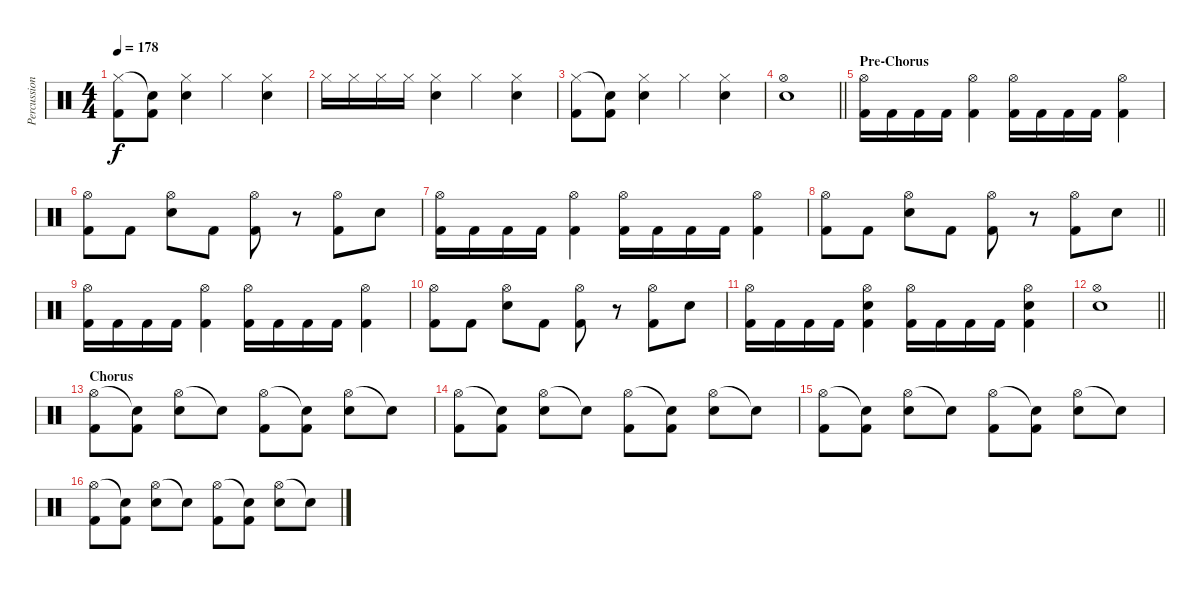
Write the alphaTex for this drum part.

\track ("Percussion" "Percussion") {instrument percussion}
\staff {score}
\articulation defaults
\ts (4 4)
\tempo 178
\clef neutral
\ks c
("Hi-Hat (closed)" "Kick (hit) 2").8{dy f} ("Snare (hit)"{t} "Kick (hit) 2").8 ("Hi-Hat (closed)" "Snare (hit) 2").4 "Hi-Hat (closed)".4 ("Hi-Hat (closed)" "Snare (hit) 2").4 |
"Hi-Hat (closed)".16 "Hi-Hat (closed)".16 "Hi-Hat (closed)".16 "Hi-Hat (closed)".16 ("Hi-Hat (closed)" "Snare (hit) 2").4 "Hi-Hat (closed)".4 ("Hi-Hat (closed)" "Snare (hit) 2").4 |
("Hi-Hat (closed)" "Kick (hit) 2").8 ("Snare (hit)"{t} "Kick (hit) 2").8 ("Hi-Hat (closed)" "Snare (hit) 2").4 "Hi-Hat (closed)".4 ("Hi-Hat (closed)" "Snare (hit) 2").4 |
\barLineRight lightlight
("Hi-Hat (open)" "Snare (hit) 2").1 |
\section ("" "Pre-Chorus")
("Hi-Hat (open)" "Kick (hit) 2").16 "Kick (hit) 2".16 "Kick (hit) 2".16 "Kick (hit) 2".16 ("Hi-Hat (open)" "Kick (hit) 2").4 ("Hi-Hat (open)" "Kick (hit) 2").16 "Kick (hit) 2".16 "Kick (hit) 2".16 "Kick (hit) 2".16 ("Hi-Hat (open)" "Kick (hit) 2").4 |
("Hi-Hat (open)" "Kick (hit) 2").8 "Kick (hit) 2".8 ("Hi-Hat (open)" "Snare (hit) 2").8 "Kick (hit) 2".8 ("Hi-Hat (open)" "Kick (hit) 2").8 r.8 ("Hi-Hat (open)" "Kick (hit) 2").8 "Snare (hit) 2".8 |
("Hi-Hat (open)" "Kick (hit) 2").16 "Kick (hit) 2".16 "Kick (hit) 2".16 "Kick (hit) 2".16 ("Hi-Hat (open)" "Kick (hit) 2").4 ("Hi-Hat (open)" "Kick (hit) 2").16 "Kick (hit) 2".16 "Kick (hit) 2".16 "Kick (hit) 2".16 ("Hi-Hat (open)" "Kick (hit) 2").4 |
\barLineRight lightlight
("Hi-Hat (open)" "Kick (hit) 2").8 "Kick (hit) 2".8 ("Hi-Hat (open)" "Snare (hit) 2").8 "Kick (hit) 2".8 ("Hi-Hat (open)" "Kick (hit) 2").8 r.8 ("Hi-Hat (open)" "Kick (hit) 2").8 "Snare (hit) 2".8 |
("Hi-Hat (open)" "Kick (hit) 2").16 "Kick (hit) 2".16 "Kick (hit) 2".16 "Kick (hit) 2".16 ("Hi-Hat (open)" "Kick (hit) 2").4 ("Hi-Hat (open)" "Kick (hit) 2").16 "Kick (hit) 2".16 "Kick (hit) 2".16 "Kick (hit) 2".16 ("Hi-Hat (open)" "Kick (hit) 2").4 |
("Hi-Hat (open)" "Kick (hit) 2").8 "Kick (hit) 2".8 ("Hi-Hat (open)" "Snare (hit) 2").8 "Kick (hit) 2".8 ("Hi-Hat (open)" "Kick (hit) 2").8 r.8 ("Hi-Hat (open)" "Kick (hit) 2").8 "Snare (hit) 2".8 |
("Hi-Hat (open)" "Kick (hit) 2").16 "Kick (hit) 2".16 "Kick (hit) 2".16 "Kick (hit) 2".16 ("Hi-Hat (open)" "Snare (hit) 2" "Kick (hit) 2").4 ("Hi-Hat (open)" "Kick (hit) 2").16 "Kick (hit) 2".16 "Kick (hit) 2".16 "Kick (hit) 2".16 ("Hi-Hat (open)" "Snare (hit) 2" "Kick (hit) 2").4 |
\barLineRight lightlight
("Hi-Hat (open)" "Snare (hit) 2").1 |
\section ("" "Chorus")
("Hi-Hat (open)" "Kick (hit) 2").8 ("Snare (hit)"{t} "Kick (hit) 2").8 ("Hi-Hat (open)" "Snare (hit) 2").8 "Snare (hit)"{t}.8 ("Hi-Hat (open)" "Kick (hit) 2").8 ("Snare (hit)"{t} "Kick (hit) 2").8 ("Hi-Hat (open)" "Snare (hit) 2").8 "Snare (hit)"{t}.8 |
("Hi-Hat (open)" "Kick (hit) 2").8 ("Snare (hit)"{t} "Kick (hit) 2").8 ("Hi-Hat (open)" "Snare (hit) 2").8 "Snare (hit)"{t}.8 ("Hi-Hat (open)" "Kick (hit) 2").8 ("Snare (hit)"{t} "Kick (hit) 2").8 ("Hi-Hat (open)" "Snare (hit) 2").8 "Snare (hit)"{t}.8 |
("Hi-Hat (open)" "Kick (hit) 2").8 ("Snare (hit)"{t} "Kick (hit) 2").8 ("Hi-Hat (open)" "Snare (hit) 2").8 "Snare (hit)"{t}.8 ("Hi-Hat (open)" "Kick (hit) 2").8 ("Snare (hit)"{t} "Kick (hit) 2").8 ("Hi-Hat (open)" "Snare (hit) 2").8 "Snare (hit)"{t}.8 |
("Hi-Hat (open)" "Kick (hit) 2").8 ("Snare (hit)"{t} "Kick (hit) 2").8 ("Hi-Hat (open)" "Snare (hit) 2").8 "Snare (hit)"{t}.8 ("Hi-Hat (open)" "Kick (hit) 2").8 ("Snare (hit)"{t} "Kick (hit) 2").8 ("Hi-Hat (open)" "Snare (hit) 2").8 "Snare (hit)"{t}.8
